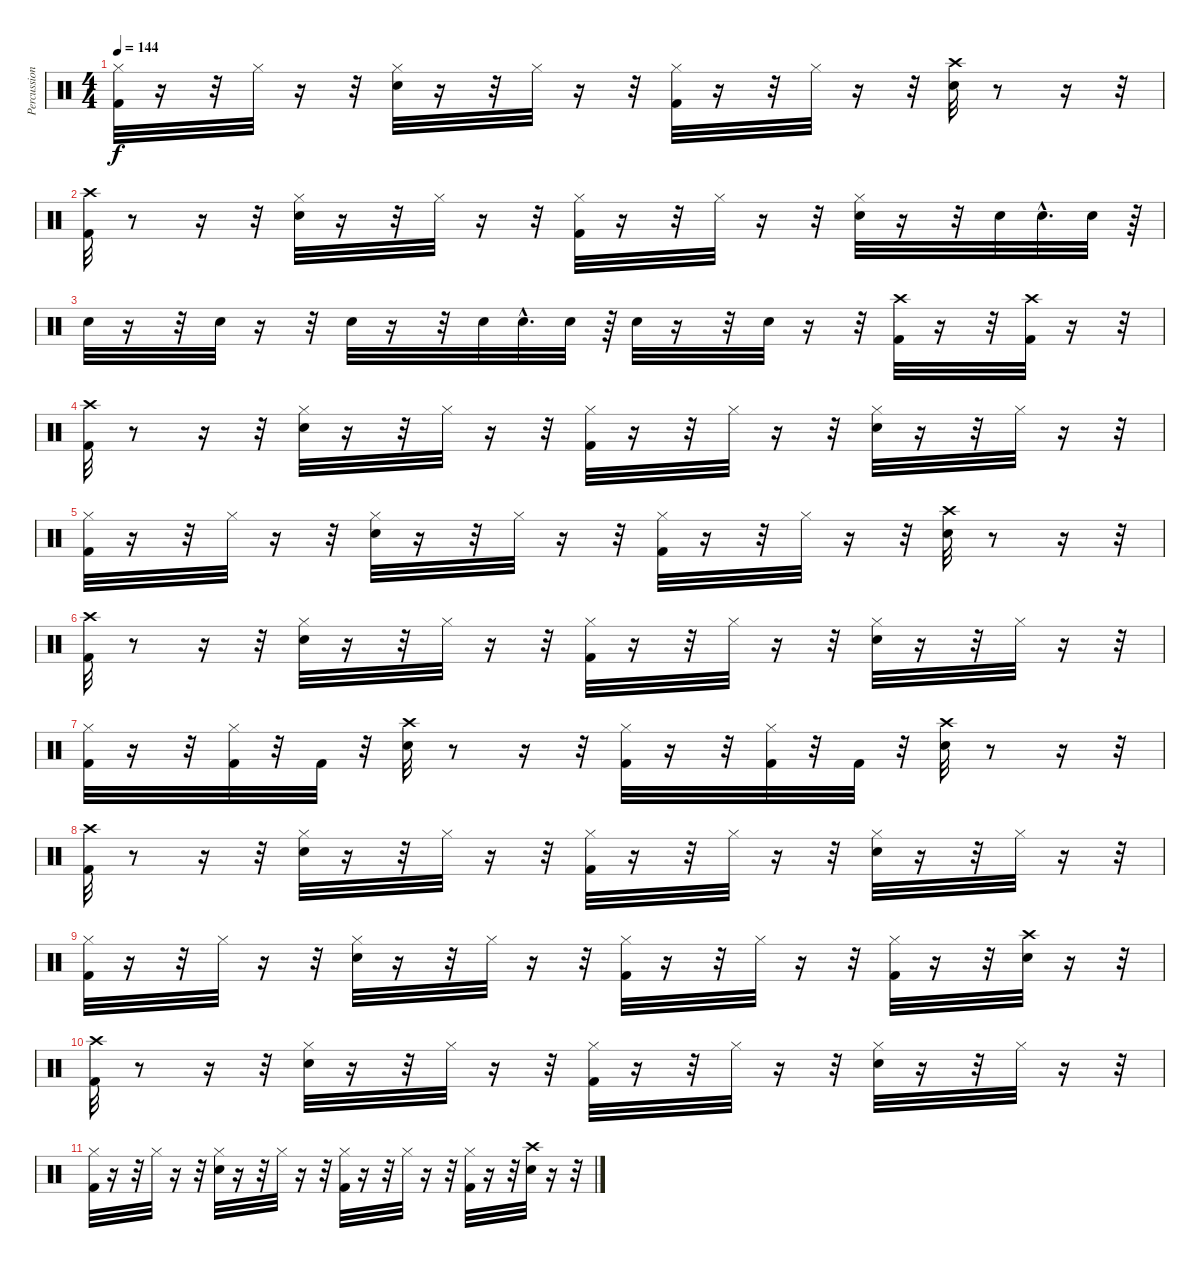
\track ("Percussion" "Percussion") {instrument percussion}
\staff {score}
\articulation defaults
\ts (4 4)
\tempo 144
\clef neutral
\ks c
("Kick (hit) 2" "Hi-Hat (closed)").32{dy f} r.16 r.32 "Hi-Hat (closed)".32 r.16 r.32 ("Snare (hit) 2" "Hi-Hat (closed)").32 r.16 r.32 "Hi-Hat (closed)".32 r.16 r.32 ("Hi-Hat (closed)" "Kick (hit) 2").32 r.16 r.32 "Hi-Hat (closed)".32 r.16 r.32 ("Crash high (hit)" "Snare (hit) 2").32 r.8 r.16 r.32 |
("Crash high (hit)" "Kick (hit) 2").32 r.8 r.16 r.32 ("Snare (hit) 2" "Hi-Hat (closed)").32 r.16 r.32 "Hi-Hat (closed)".32 r.16 r.32 ("Hi-Hat (closed)" "Kick (hit) 2").32 r.16 r.32 "Hi-Hat (closed)".32 r.16 r.32 ("Snare (hit) 2" "Hi-Hat (closed)").32 r.16 r.32 "Snare (hit) 2".32 "Snare (hit) 2"{hac}.32{d} "Snare (hit) 2".32 r.64 |
"Snare (hit) 2".32 r.16 r.32 "Snare (hit) 2".32 r.16 r.32 "Snare (hit) 2".32 r.16 r.32 "Snare (hit) 2".32 "Snare (hit) 2"{hac}.32{d} "Snare (hit) 2".32 r.64 "Snare (hit) 2".32 r.16 r.32 "Snare (hit) 2".32 r.16 r.32 ("Kick (hit) 2" "Crash high (hit)").32 r.16 r.32 ("Kick (hit) 2" "Crash high (hit)").32 r.16 r.32 |
("Kick (hit) 2" "Crash high (hit)").32 r.8 r.16 r.32 ("Hi-Hat (closed)" "Snare (hit) 2").32 r.16 r.32 "Hi-Hat (closed)".32 r.16 r.32 ("Hi-Hat (closed)" "Kick (hit) 2").32 r.16 r.32 "Hi-Hat (closed)".32 r.16 r.32 ("Snare (hit) 2" "Hi-Hat (closed)").32 r.16 r.32 "Hi-Hat (closed)".32 r.16 r.32 |
("Kick (hit) 2" "Hi-Hat (closed)").32 r.16 r.32 "Hi-Hat (closed)".32 r.16 r.32 ("Snare (hit) 2" "Hi-Hat (closed)").32 r.16 r.32 "Hi-Hat (closed)".32 r.16 r.32 ("Hi-Hat (closed)" "Kick (hit) 2").32 r.16 r.32 "Hi-Hat (closed)".32 r.16 r.32 ("Crash high (hit)" "Snare (hit) 2").32 r.8 r.16 r.32 |
("Kick (hit) 2" "Crash high (hit)").32 r.8 r.16 r.32 ("Hi-Hat (closed)" "Snare (hit) 2").32 r.16 r.32 "Hi-Hat (closed)".32 r.16 r.32 ("Hi-Hat (closed)" "Kick (hit) 2").32 r.16 r.32 "Hi-Hat (closed)".32 r.16 r.32 ("Snare (hit) 2" "Hi-Hat (closed)").32 r.16 r.32 "Hi-Hat (closed)".32 r.16 r.32 |
("Kick (hit) 2" "Hi-Hat (closed)").32 r.16 r.32 ("Kick (hit) 2" "Hi-Hat (closed)").32 r.32 "Kick (hit) 2".32 r.32 ("Crash high (hit)" "Snare (hit) 2").32 r.8 r.16 r.32 ("Kick (hit) 2" "Hi-Hat (closed)").32 r.16 r.32 ("Kick (hit) 2" "Hi-Hat (closed)").32 r.32 "Kick (hit) 2".32 r.32 ("Crash high (hit)" "Snare (hit) 2").32 r.8 r.16 r.32 |
("Kick (hit) 2" "Crash high (hit)").32 r.8 r.16 r.32 ("Hi-Hat (closed)" "Snare (hit) 2").32 r.16 r.32 "Hi-Hat (closed)".32 r.16 r.32 ("Hi-Hat (closed)" "Kick (hit) 2").32 r.16 r.32 "Hi-Hat (closed)".32 r.16 r.32 ("Snare (hit) 2" "Hi-Hat (closed)").32 r.16 r.32 "Hi-Hat (closed)".32 r.16 r.32 |
("Kick (hit) 2" "Hi-Hat (closed)").32 r.16 r.32 "Hi-Hat (closed)".32 r.16 r.32 ("Snare (hit) 2" "Hi-Hat (closed)").32 r.16 r.32 "Hi-Hat (closed)".32 r.16 r.32 ("Hi-Hat (closed)" "Kick (hit) 2").32 r.16 r.32 "Hi-Hat (closed)".32 r.16 r.32 ("Hi-Hat (closed)" "Kick (hit) 2").32 r.16 r.32 ("Crash high (hit)" "Snare (hit) 2").32 r.16 r.32 |
("Kick (hit) 2" "Crash high (hit)").32 r.8 r.16 r.32 ("Hi-Hat (closed)" "Snare (hit) 2").32 r.16 r.32 "Hi-Hat (closed)".32 r.16 r.32 ("Hi-Hat (closed)" "Kick (hit) 2").32 r.16 r.32 "Hi-Hat (closed)".32 r.16 r.32 ("Snare (hit) 2" "Hi-Hat (closed)").32 r.16 r.32 "Hi-Hat (closed)".32 r.16 r.32 |
("Kick (hit) 2" "Hi-Hat (closed)").32 r.16 r.32 "Hi-Hat (closed)".32 r.16 r.32 ("Snare (hit) 2" "Hi-Hat (closed)").32 r.16 r.32 "Hi-Hat (closed)".32 r.16 r.32 ("Hi-Hat (closed)" "Kick (hit) 2").32 r.16 r.32 "Hi-Hat (closed)".32 r.16 r.32 ("Hi-Hat (closed)" "Kick (hit) 2").32 r.16 r.32 ("Crash high (hit)" "Snare (hit) 2").32 r.16 r.32
